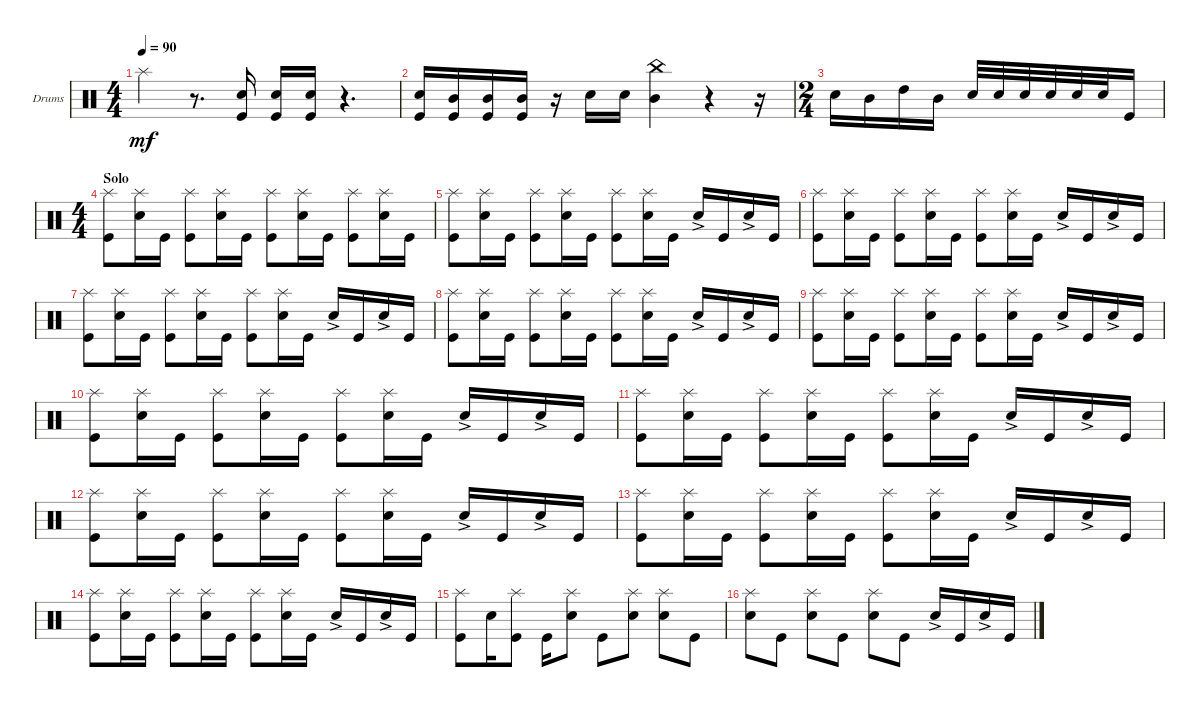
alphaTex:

\defaultSystemsLayout 4
\bracketExtendMode groupsimilarinstruments
\firstSystemTrackNameOrientation horizontal
\otherSystemsTrackNameOrientation horizontal
\track ("Drumkit" "Drums") {instrument percussion}
\staff {score}
\articulation defaults
\ts (4 4)
\tempo 90
\clef neutral
\ks c "Splash (hit)".4{dy mf}
r.8{d} ("Kick (hit)" "Snare (hit) 2").16 ("Kick (hit)" "Snare (hit) 2").16 ("Kick (hit)" "Snare (hit) 2").16 r.4{d} |
("Snare (hit) 2" "Kick (hit)").16 ("Kick (hit)" "Mid Tom (hit)").16 ("Kick (hit)" "Mid Tom (hit)").16 ("Kick (hit)" "Mid Tom (hit)").16 r.16 "Snare (hit) 2".16 "Snare (hit) 2".16 ("China (hit)" "Mid Tom (hit)").4 r.4 r.16 |
\ts (2 4)
"Snare (hit) 2".16 "Mid Tom (hit)".16 "High Tom (hit)".16 "Mid Tom (hit)".16 "Snare (hit) 2".32 "Snare (hit) 2".32 "Snare (hit) 2".32 "Snare (hit) 2".32 "Snare (hit) 2".32 "Snare (hit) 2".32 "Kick (hit)".16 |
\ts (4 4)
\section ("" "Solo")
("Kick (hit)" "Splash (hit)").8 ("Snare (hit) 2" "Splash (hit)").16 "Kick (hit)".16 ("Kick (hit)" "Splash (hit)").8 ("Snare (hit) 2" "Splash (hit)").16 "Kick (hit)".16 ("Kick (hit)" "Splash (hit)").8 ("Snare (hit) 2" "Splash (hit)").16 "Kick (hit)".16 ("Kick (hit)" "Splash (hit)").8 ("Snare (hit) 2" "Splash (hit)").16 "Kick (hit)".16 |
("Kick (hit)" "Splash (hit)").8 ("Snare (hit) 2" "Splash (hit)").16 "Kick (hit)".16 ("Kick (hit)" "Splash (hit)").8 ("Snare (hit) 2" "Splash (hit)").16 "Kick (hit)".16 ("Kick (hit)" "Splash (hit)").8 ("Snare (hit) 2" "Splash (hit)").16 "Kick (hit)".16 "Snare (hit) 2"{ac}.16 "Kick (hit)".16 "Snare (hit) 2"{ac}.16 "Kick (hit)".16 |
("Kick (hit)" "Splash (hit)").8 ("Snare (hit) 2" "Splash (hit)").16 "Kick (hit)".16 ("Kick (hit)" "Splash (hit)").8 ("Snare (hit) 2" "Splash (hit)").16 "Kick (hit)".16 ("Kick (hit)" "Splash (hit)").8 ("Snare (hit) 2" "Splash (hit)").16 "Kick (hit)".16 "Snare (hit) 2"{ac}.16 "Kick (hit)".16 "Snare (hit) 2"{ac}.16 "Kick (hit)".16 |
("Kick (hit)" "Splash (hit)").8 ("Snare (hit) 2" "Splash (hit)").16 "Kick (hit)".16 ("Kick (hit)" "Splash (hit)").8 ("Snare (hit) 2" "Splash (hit)").16 "Kick (hit)".16 ("Kick (hit)" "Splash (hit)").8 ("Snare (hit) 2" "Splash (hit)").16 "Kick (hit)".16 "Snare (hit) 2"{ac}.16 "Kick (hit)".16 "Snare (hit) 2"{ac}.16 "Kick (hit)".16 |
("Kick (hit)" "Splash (hit)").8 ("Snare (hit) 2" "Splash (hit)").16 "Kick (hit)".16 ("Kick (hit)" "Splash (hit)").8 ("Snare (hit) 2" "Splash (hit)").16 "Kick (hit)".16 ("Kick (hit)" "Splash (hit)").8 ("Snare (hit) 2" "Splash (hit)").16 "Kick (hit)".16 "Snare (hit) 2"{ac}.16 "Kick (hit)".16 "Snare (hit) 2"{ac}.16 "Kick (hit)".16 |
("Kick (hit)" "Splash (hit)").8 ("Snare (hit) 2" "Splash (hit)").16 "Kick (hit)".16 ("Kick (hit)" "Splash (hit)").8 ("Snare (hit) 2" "Splash (hit)").16 "Kick (hit)".16 ("Kick (hit)" "Splash (hit)").8 ("Snare (hit) 2" "Splash (hit)").16 "Kick (hit)".16 "Snare (hit) 2"{ac}.16 "Kick (hit)".16 "Snare (hit) 2"{ac}.16 "Kick (hit)".16 |
("Kick (hit)" "Splash (hit)").8 ("Snare (hit) 2" "Splash (hit)").16 "Kick (hit)".16 ("Kick (hit)" "Splash (hit)").8 ("Snare (hit) 2" "Splash (hit)").16 "Kick (hit)".16 ("Kick (hit)" "Splash (hit)").8 ("Snare (hit) 2" "Splash (hit)").16 "Kick (hit)".16 "Snare (hit) 2"{ac}.16 "Kick (hit)".16 "Snare (hit) 2"{ac}.16 "Kick (hit)".16 |
("Kick (hit)" "Splash (hit)").8 ("Snare (hit) 2" "Splash (hit)").16 "Kick (hit)".16 ("Kick (hit)" "Splash (hit)").8 ("Snare (hit) 2" "Splash (hit)").16 "Kick (hit)".16 ("Kick (hit)" "Splash (hit)").8 ("Snare (hit) 2" "Splash (hit)").16 "Kick (hit)".16 "Snare (hit) 2"{ac}.16 "Kick (hit)".16 "Snare (hit) 2"{ac}.16 "Kick (hit)".16 |
("Kick (hit)" "Splash (hit)").8 ("Snare (hit) 2" "Splash (hit)").16 "Kick (hit)".16 ("Kick (hit)" "Splash (hit)").8 ("Snare (hit) 2" "Splash (hit)").16 "Kick (hit)".16 ("Kick (hit)" "Splash (hit)").8 ("Snare (hit) 2" "Splash (hit)").16 "Kick (hit)".16 "Snare (hit) 2"{ac}.16 "Kick (hit)".16 "Snare (hit) 2"{ac}.16 "Kick (hit)".16 |
("Kick (hit)" "Splash (hit)").8 ("Snare (hit) 2" "Splash (hit)").16 "Kick (hit)".16 ("Kick (hit)" "Splash (hit)").8 ("Snare (hit) 2" "Splash (hit)").16 "Kick (hit)".16 ("Kick (hit)" "Splash (hit)").8 ("Snare (hit) 2" "Splash (hit)").16 "Kick (hit)".16 "Snare (hit) 2"{ac}.16 "Kick (hit)".16 "Snare (hit) 2"{ac}.16 "Kick (hit)".16 |
("Kick (hit)" "Splash (hit)").8 ("Snare (hit) 2" "Splash (hit)").16 "Kick (hit)".16 ("Kick (hit)" "Splash (hit)").8 ("Snare (hit) 2" "Splash (hit)").16 "Kick (hit)".16 ("Kick (hit)" "Splash (hit)").8 ("Snare (hit) 2" "Splash (hit)").16 "Kick (hit)".16 "Snare (hit) 2"{ac}.16 "Kick (hit)".16 "Snare (hit) 2"{ac}.16 "Kick (hit)".16 |
("Kick (hit)" "Splash (hit)").8 "Snare (hit) 2".16 ("Kick (hit)" "Splash (hit)").8 "Kick (hit)".16 ("Splash (hit)" "Snare (hit) 2").8 "Kick (hit)".8 ("Splash (hit)" "Snare (hit) 2").8 ("Splash (hit)" "Snare (hit) 2").8 "Kick (hit)".8 |
("Splash (hit)" "Snare (hit) 2").8 "Kick (hit)".8 ("Splash (hit)" "Snare (hit) 2").8 "Kick (hit)".8 ("Splash (hit)" "Snare (hit) 2").8 "Kick (hit)".8 "Snare (hit) 2"{ac}.16 "Kick (hit)".16 "Snare (hit) 2"{ac}.16 "Kick (hit)".16
